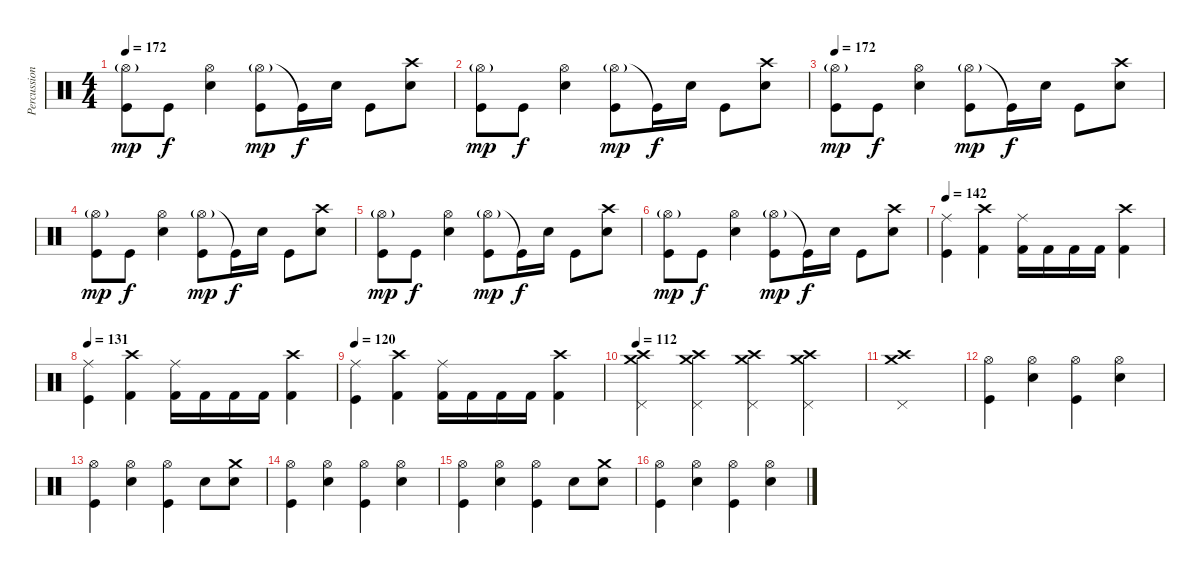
\track ("Percussion" "Percussion") {instrument percussion}
\staff {score}
\articulation defaults
\ts (4 4)
\tempo 172
\clef neutral
\ks c
("Hi-Hat (open)"{g} "Kick (hit)").8{dy mp} "Kick (hit)".8{dy f} ("Hi-Hat (open)" "Snare (hit) 2").4 ("Hi-Hat (open)"{g} "Kick (hit)").8{dy mp} "Kick (hit)"{t}.16{dy f} "Snare (hit) 2".16 "Kick (hit)".8 ("Crash high (hit)" "Snare (hit) 2").8 |
("Hi-Hat (open)"{g} "Kick (hit)").8{dy mp} "Kick (hit)".8{dy f} ("Hi-Hat (open)" "Snare (hit) 2").4 ("Hi-Hat (open)"{g} "Kick (hit)").8{dy mp} "Kick (hit)"{t}.16{dy f} "Snare (hit) 2".16 "Kick (hit)".8 ("Crash high (hit)" "Snare (hit) 2").8 |
\tempo 172
("Hi-Hat (open)"{g} "Kick (hit)").8{dy mp} "Kick (hit)".8{dy f} ("Hi-Hat (open)" "Snare (hit) 2").4 ("Hi-Hat (open)"{g} "Kick (hit)").8{dy mp} "Kick (hit)"{t}.16{dy f} "Snare (hit) 2".16 "Kick (hit)".8 ("Crash high (hit)" "Snare (hit) 2").8 |
("Hi-Hat (open)"{g} "Kick (hit)").8{dy mp} "Kick (hit)".8{dy f} ("Hi-Hat (open)" "Snare (hit) 2").4 ("Hi-Hat (open)"{g} "Kick (hit)").8{dy mp} "Kick (hit)"{t}.16{dy f} "Snare (hit) 2".16 "Kick (hit)".8 ("Crash high (hit)" "Snare (hit) 2").8 |
("Hi-Hat (open)"{g} "Kick (hit)").8{dy mp} "Kick (hit)".8{dy f} ("Hi-Hat (open)" "Snare (hit) 2").4 ("Hi-Hat (open)"{g} "Kick (hit)").8{dy mp} "Kick (hit)"{t}.16{dy f} "Snare (hit) 2".16 "Kick (hit)".8 ("Crash high (hit)" "Snare (hit) 2").8 |
("Hi-Hat (open)"{g} "Kick (hit)").8{dy mp} "Kick (hit)".8{dy f} ("Hi-Hat (open)" "Snare (hit) 2").4 ("Hi-Hat (open)"{g} "Kick (hit)").8{dy mp} "Kick (hit)"{t}.16{dy f} "Snare (hit) 2".16 "Kick (hit)".8 ("Crash high (hit)" "Snare (hit) 2").8 |
\tempo 142
("Ride (middle)" "Kick (hit)").4 ("Crash high (hit)" "Kick (hit) 2").4 ("Ride (middle)" "Kick (hit) 2").16 "Kick (hit) 2".16 "Kick (hit) 2".16 "Kick (hit) 2".16 ("Crash high (hit)" "Kick (hit) 2").4 |
\tempo 131
("Ride (middle)" "Kick (hit)").4 ("Crash high (hit)" "Kick (hit) 2").4 ("Ride (middle)" "Kick (hit) 2").16 "Kick (hit) 2".16 "Kick (hit) 2".16 "Kick (hit) 2".16 ("Crash high (hit)" "Kick (hit) 2").4 |
\tempo 120
("Ride (middle)" "Kick (hit)").4 ("Crash high (hit)" "Kick (hit) 2").4 ("Ride (middle)" "Kick (hit) 2").16 "Kick (hit) 2".16 "Kick (hit) 2".16 "Kick (hit) 2".16 ("Crash high (hit)" "Kick (hit) 2").4 |
\tempo 112
("Crash medium (hit)" "Crash high (hit)" "Pedal Hi-Hat (hit)").4 ("Crash medium (hit)" "Crash high (hit)" "Pedal Hi-Hat (hit)").4 ("Crash medium (hit)" "Crash high (hit)" "Pedal Hi-Hat (hit)").4 ("Crash medium (hit)" "Crash high (hit)" "Pedal Hi-Hat (hit)").4 |
("Crash medium (hit)" "Crash high (hit)" "Pedal Hi-Hat (hit)").1 |
("Hi-Hat (open)" "Kick (hit)").4 ("Hi-Hat (open)" "Snare (hit) 2").4 ("Hi-Hat (open)" "Kick (hit)").4 ("Hi-Hat (open)" "Snare (hit) 2").4 |
("Hi-Hat (open)" "Kick (hit)").4 ("Hi-Hat (open)" "Snare (hit) 2").4 ("Hi-Hat (open)" "Kick (hit)").4 "Snare (hit) 2".8 ("Crash medium (hit)" "Snare (hit) 2").8 |
("Hi-Hat (open)" "Kick (hit)").4 ("Hi-Hat (open)" "Snare (hit) 2").4 ("Hi-Hat (open)" "Kick (hit)").4 ("Hi-Hat (open)" "Snare (hit) 2").4 |
("Hi-Hat (open)" "Kick (hit)").4 ("Hi-Hat (open)" "Snare (hit) 2").4 ("Hi-Hat (open)" "Kick (hit)").4 "Snare (hit) 2".8 ("Crash medium (hit)" "Snare (hit) 2").8 |
("Hi-Hat (open)" "Kick (hit)").4 ("Hi-Hat (open)" "Snare (hit) 2").4 ("Hi-Hat (open)" "Kick (hit)").4 ("Hi-Hat (open)" "Snare (hit) 2").4
